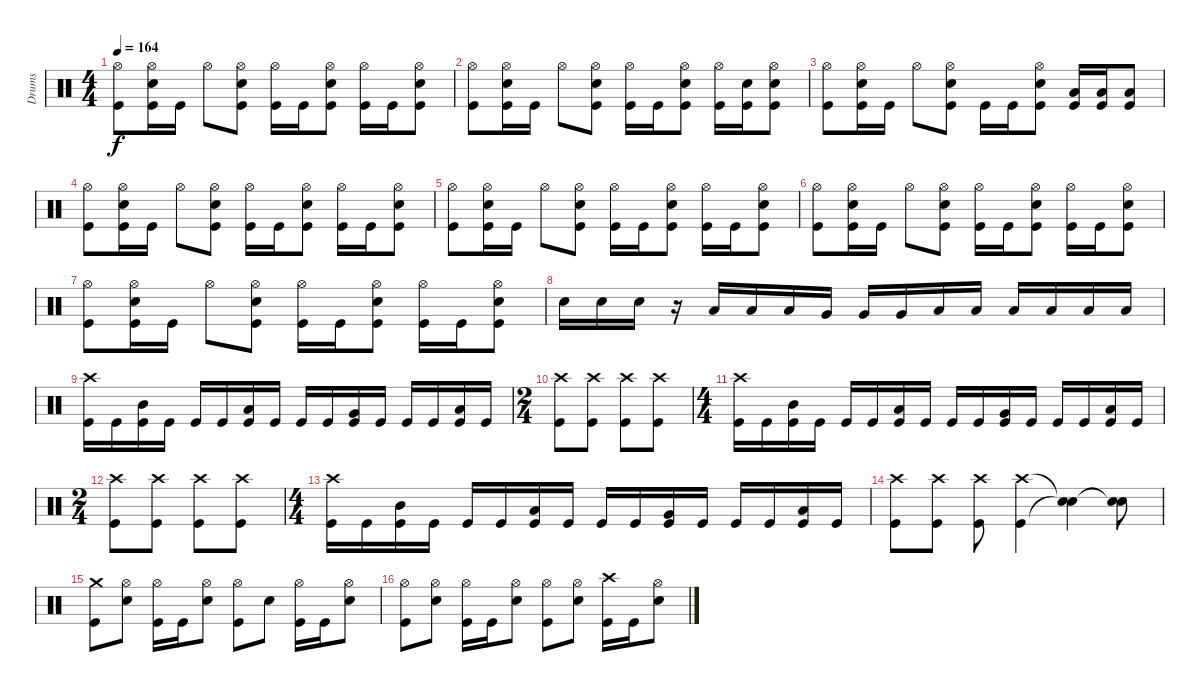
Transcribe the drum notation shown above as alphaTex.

\track ("Drums" "Drums") {instrument percussion}
\staff {score}
\articulation defaults
\ts (4 4)
\tempo 164
\clef neutral
\ks c
("Hi-Hat (open)" "Kick (hit)").8{dy f} ("Hi-Hat (open)" "Snare (hit) 2" "Kick (hit)").16 "Kick (hit)".16 "Hi-Hat (open)".8 ("Hi-Hat (open)" "Snare (hit) 2" "Kick (hit)").8 ("Hi-Hat (open)" "Kick (hit)").16 "Kick (hit)".16 ("Hi-Hat (open)" "Snare (hit) 2" "Kick (hit)").8 ("Hi-Hat (open)" "Kick (hit)").16 "Kick (hit)".16 ("Hi-Hat (open)" "Snare (hit) 2" "Kick (hit)").8 |
("Hi-Hat (open)" "Kick (hit)").8 ("Hi-Hat (open)" "Snare (hit) 2" "Kick (hit)").16 "Kick (hit)".16 "Hi-Hat (open)".8 ("Hi-Hat (open)" "Snare (hit) 2" "Kick (hit)").8 ("Hi-Hat (open)" "Kick (hit)").16 "Kick (hit)".16 ("Hi-Hat (open)" "Snare (hit) 2" "Kick (hit)").8 ("Hi-Hat (open)" "Kick (hit)").16 ("Snare (hit)" "Kick (hit)").16 ("Hi-Hat (open)" "Snare (hit) 2" "Kick (hit)").8 |
("Hi-Hat (open)" "Kick (hit)").8 ("Hi-Hat (open)" "Snare (hit) 2" "Kick (hit)").16 "Kick (hit)".16 "Hi-Hat (open)".8 ("Hi-Hat (open)" "Snare (hit) 2" "Kick (hit)").8 "Kick (hit)".16 "Kick (hit)".16 ("Hi-Hat (open)" "Snare (hit) 2" "Kick (hit)").8 ("Low Floor Tom (hit)" "Kick (hit)").16 ("Low Floor Tom (hit)" "Kick (hit)").16 ("Low Floor Tom (hit)" "Kick (hit)").8 |
("Hi-Hat (open)" "Kick (hit)").8 ("Hi-Hat (open)" "Snare (hit) 2" "Kick (hit)").16 "Kick (hit)".16 "Hi-Hat (open)".8 ("Hi-Hat (open)" "Snare (hit) 2" "Kick (hit)").8 ("Hi-Hat (open)" "Kick (hit)").16 "Kick (hit)".16 ("Hi-Hat (open)" "Snare (hit) 2" "Kick (hit)").8 ("Hi-Hat (open)" "Kick (hit)").16 "Kick (hit)".16 ("Hi-Hat (open)" "Snare (hit) 2" "Kick (hit)").8 |
("Hi-Hat (open)" "Kick (hit)").8 ("Hi-Hat (open)" "Snare (hit) 2" "Kick (hit)").16 "Kick (hit)".16 "Hi-Hat (open)".8 ("Hi-Hat (open)" "Snare (hit) 2" "Kick (hit)").8 ("Hi-Hat (open)" "Kick (hit)").16 "Kick (hit)".16 ("Hi-Hat (open)" "Snare (hit) 2" "Kick (hit)").8 ("Hi-Hat (open)" "Kick (hit)").16 "Kick (hit)".16 ("Hi-Hat (open)" "Snare (hit) 2" "Kick (hit)").8 |
("Hi-Hat (open)" "Kick (hit)").8 ("Hi-Hat (open)" "Snare (hit) 2" "Kick (hit)").16 "Kick (hit)".16 "Hi-Hat (open)".8 ("Hi-Hat (open)" "Snare (hit) 2" "Kick (hit)").8 ("Hi-Hat (open)" "Kick (hit)").16 "Kick (hit)".16 ("Hi-Hat (open)" "Snare (hit) 2" "Kick (hit)").8 ("Hi-Hat (open)" "Kick (hit)").16 "Kick (hit)".16 ("Hi-Hat (open)" "Snare (hit) 2" "Kick (hit)").8 |
("Hi-Hat (open)" "Kick (hit)").8 ("Hi-Hat (open)" "Snare (hit) 2" "Kick (hit)").16 "Kick (hit)".16 "Hi-Hat (open)".8 ("Hi-Hat (open)" "Snare (hit) 2" "Kick (hit)").8 ("Hi-Hat (open)" "Kick (hit)").16 "Kick (hit)".16 ("Hi-Hat (open)" "Snare (hit) 2" "Kick (hit)").8 ("Hi-Hat (open)" "Kick (hit)").16 "Kick (hit)".16 ("Hi-Hat (open)" "Snare (hit) 2" "Kick (hit)").8 |
"Snare (hit) 2".16 "Snare (hit) 2".16 "Snare (hit) 2".16 r.16 "Low Tom (hit)".16 "Low Tom (hit)".16 "Low Tom (hit)".16 "Very Low Tom (hit)".16 "Very Low Tom (hit)".16 "Very Low Tom (hit)".16 "Low Floor Tom (hit)".16 "Low Floor Tom (hit)".16 "Low Floor Tom (hit)".16 "Low Floor Tom (hit)".16 "Low Floor Tom (hit)".16 "Low Floor Tom (hit)".16 |
("Crash high (hit)" "Kick (hit)").16 "Kick (hit)".16 ("Mid Tom (hit)" "Kick (hit)").16 "Kick (hit)".16 "Kick (hit)".16 "Kick (hit)".16 ("Low Tom (hit)" "Kick (hit)").16 "Kick (hit)".16 "Kick (hit)".16 "Kick (hit)".16 ("Very Low Tom (hit)" "Kick (hit)").16 "Kick (hit)".16 "Kick (hit)".16 "Kick (hit)".16 ("Low Floor Tom (hit)" "Kick (hit)").16 "Kick (hit)".16 |
\ts (2 4)
("Crash high (hit)" "Kick (hit)").8 ("Crash high (hit)" "Kick (hit)").8 ("Crash high (hit)" "Kick (hit)").8 ("Crash high (hit)" "Kick (hit)").8 |
\ts (4 4)
("Crash high (hit)" "Kick (hit)").16 "Kick (hit)".16 ("Mid Tom (hit)" "Kick (hit)").16 "Kick (hit)".16 "Kick (hit)".16 "Kick (hit)".16 ("Low Tom (hit)" "Kick (hit)").16 "Kick (hit)".16 "Kick (hit)".16 "Kick (hit)".16 ("Very Low Tom (hit)" "Kick (hit)").16 "Kick (hit)".16 "Kick (hit)".16 "Kick (hit)".16 ("Low Floor Tom (hit)" "Kick (hit)").16 "Kick (hit)".16 |
\ts (2 4)
("Crash high (hit)" "Kick (hit)").8 ("Crash high (hit)" "Kick (hit)").8 ("Crash high (hit)" "Kick (hit)").8 ("Crash high (hit)" "Kick (hit)").8 |
\ts (4 4)
("Crash high (hit)" "Kick (hit)").16 "Kick (hit)".16 ("Mid Tom (hit)" "Kick (hit)").16 "Kick (hit)".16 "Kick (hit)".16 "Kick (hit)".16 ("Low Tom (hit)" "Kick (hit)").16 "Kick (hit)".16 "Kick (hit)".16 "Kick (hit)".16 ("Very Low Tom (hit)" "Kick (hit)").16 "Kick (hit)".16 "Kick (hit)".16 "Kick (hit)".16 ("Low Floor Tom (hit)" "Kick (hit)").16 "Kick (hit)".16 |
("Crash high (hit)" "Kick (hit)").8 ("Crash high (hit)" "Kick (hit)").8 ("Crash high (hit)" "Kick (hit)").8 ("Crash high (hit)" "Kick (hit)").4 ("Snare (hit)"{t} "Snare (hit)"{t}).4 ("Snare (hit)"{t} "Snare (hit)"{t}).8 |
("Crash medium (hit)" "Kick (hit)").8 ("Hi-Hat (open)" "Snare (hit) 2").8 ("Hi-Hat (open)" "Kick (hit)").16 "Kick (hit)".16 ("Hi-Hat (open)" "Snare (hit) 2").8 ("Hi-Hat (open)" "Kick (hit)").8 "Snare (hit) 2".8 ("Hi-Hat (open)" "Kick (hit)").16 "Kick (hit)".16 ("Hi-Hat (open)" "Snare (hit) 2").8 |
("Hi-Hat (open)" "Kick (hit)").8 ("Hi-Hat (open)" "Snare (hit) 2").8 ("Hi-Hat (open)" "Kick (hit)").16 "Kick (hit)".16 ("Hi-Hat (open)" "Snare (hit) 2").8 ("Hi-Hat (open)" "Kick (hit)").8 ("Hi-Hat (open)" "Snare (hit) 2").8 ("Crash high (hit)" "Kick (hit)").16 "Kick (hit)".16 ("Hi-Hat (open)" "Snare (hit) 2").8
